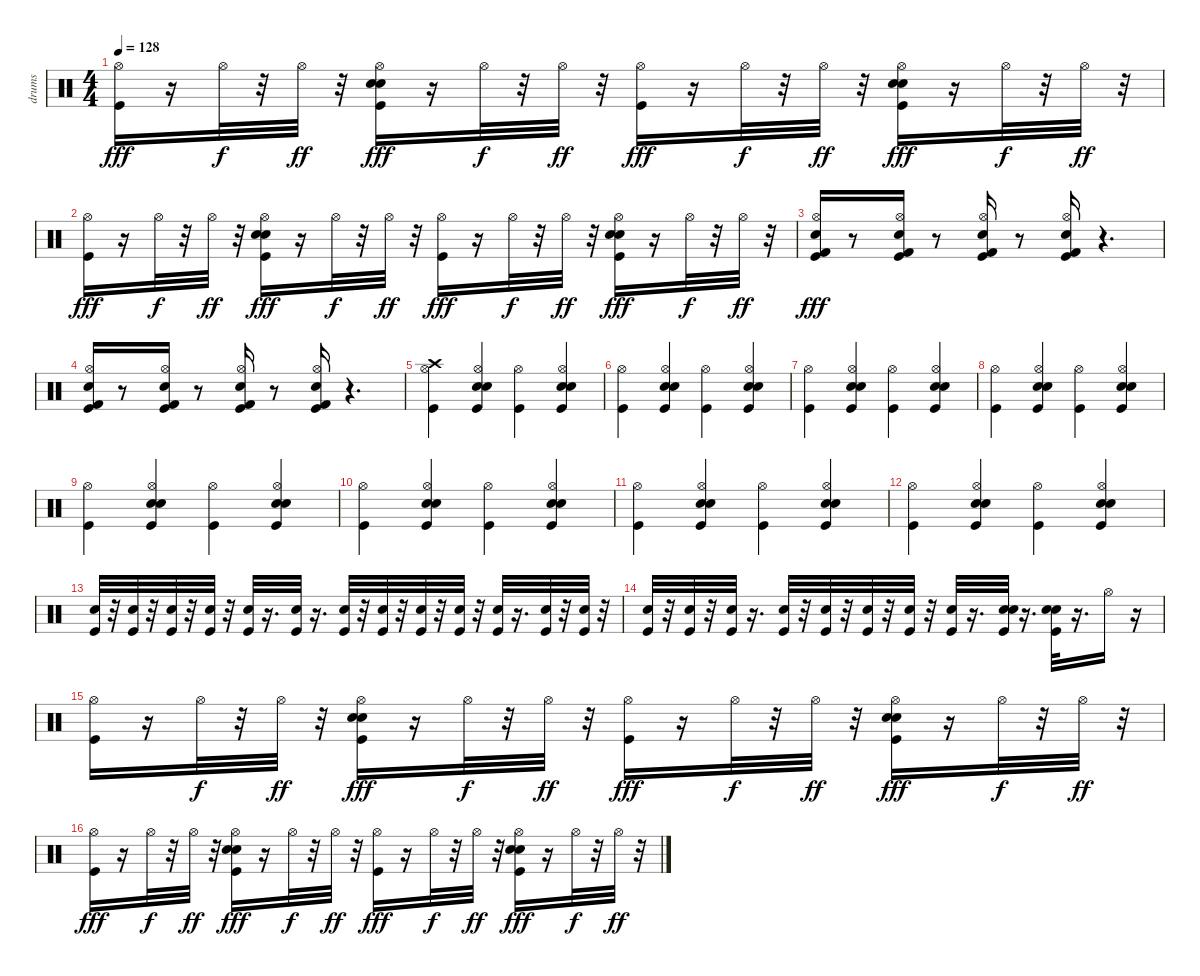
\track ("drums" "drums") {instrument percussion}
\staff {score}
\articulation defaults
\ts (4 4)
\tempo 128
\clef neutral
\ks c
("Kick (hit)" "Hi-Hat (open)").16{dy fff} r.16 "Hi-Hat (open)".32{dy f} r.32 "Hi-Hat (open)".32{dy ff} r.32 ("Snare (hit) 2" "Electric Snare (hit)" "Kick (hit)" "Hi-Hat (open)").16{dy fff} r.16 "Hi-Hat (open)".32{dy f} r.32 "Hi-Hat (open)".32{dy ff} r.32 ("Kick (hit)" "Hi-Hat (open)").16{dy fff} r.16 "Hi-Hat (open)".32{dy f} r.32 "Hi-Hat (open)".32{dy ff} r.32 ("Kick (hit)" "Snare (hit) 2" "Electric Snare (hit)" "Hi-Hat (open)").16{dy fff} r.16 "Hi-Hat (open)".32{dy f} r.32 "Hi-Hat (open)".32{dy ff} r.32 |
("Kick (hit)" "Hi-Hat (open)").16{dy fff} r.16 "Hi-Hat (open)".32{dy f} r.32 "Hi-Hat (open)".32{dy ff} r.32 ("Snare (hit) 2" "Electric Snare (hit)" "Kick (hit)" "Hi-Hat (open)").16{dy fff} r.16 "Hi-Hat (open)".32{dy f} r.32 "Hi-Hat (open)".32{dy ff} r.32 ("Kick (hit)" "Hi-Hat (open)").16{dy fff} r.16 "Hi-Hat (open)".32{dy f} r.32 "Hi-Hat (open)".32{dy ff} r.32 ("Kick (hit)" "Snare (hit) 2" "Electric Snare (hit)" "Hi-Hat (open)").16{dy fff} r.16 "Hi-Hat (open)".32{dy f} r.32 "Hi-Hat (open)".32{dy ff} r.32 |
("Hi-Hat (open)" "Snare (hit) 2" "Kick (hit) 2" "Kick (hit)").16{dy fff} r.8 ("Hi-Hat (open)" "Snare (hit) 2" "Kick (hit) 2" "Kick (hit)").16 r.8 ("Hi-Hat (open)" "Snare (hit) 2" "Kick (hit) 2" "Kick (hit)").16 r.8 ("Hi-Hat (open)" "Snare (hit) 2" "Kick (hit) 2" "Kick (hit)").16 r.4{d} |
("Hi-Hat (open)" "Snare (hit) 2" "Kick (hit) 2" "Kick (hit)").16 r.8 ("Hi-Hat (open)" "Snare (hit) 2" "Kick (hit) 2" "Kick (hit)").16 r.8 ("Hi-Hat (open)" "Snare (hit) 2" "Kick (hit) 2" "Kick (hit)").16 r.8 ("Hi-Hat (open)" "Snare (hit) 2" "Kick (hit) 2" "Kick (hit)").16 r.4{d} |
("Kick (hit)" "Crash high (hit)" "Hi-Hat (open)").4 ("Kick (hit)" "Snare (hit) 2" "Electric Snare (hit)" "Hi-Hat (open)").4 ("Kick (hit)" "Hi-Hat (open)").4 ("Kick (hit)" "Snare (hit) 2" "Electric Snare (hit)" "Hi-Hat (open)").4 |
("Hi-Hat (open)" "Kick (hit)").4 ("Kick (hit)" "Snare (hit) 2" "Electric Snare (hit)" "Hi-Hat (open)").4 ("Kick (hit)" "Hi-Hat (open)").4 ("Kick (hit)" "Snare (hit) 2" "Electric Snare (hit)" "Hi-Hat (open)").4 |
("Hi-Hat (open)" "Kick (hit)").4 ("Kick (hit)" "Snare (hit) 2" "Electric Snare (hit)" "Hi-Hat (open)").4 ("Kick (hit)" "Hi-Hat (open)").4 ("Kick (hit)" "Snare (hit) 2" "Electric Snare (hit)" "Hi-Hat (open)").4 |
("Hi-Hat (open)" "Kick (hit)").4 ("Kick (hit)" "Snare (hit) 2" "Electric Snare (hit)" "Hi-Hat (open)").4 ("Kick (hit)" "Hi-Hat (open)").4 ("Kick (hit)" "Snare (hit) 2" "Electric Snare (hit)" "Hi-Hat (open)").4 |
("Hi-Hat (open)" "Kick (hit)").4 ("Kick (hit)" "Snare (hit) 2" "Electric Snare (hit)" "Hi-Hat (open)").4 ("Kick (hit)" "Hi-Hat (open)").4 ("Kick (hit)" "Snare (hit) 2" "Electric Snare (hit)" "Hi-Hat (open)").4 |
("Hi-Hat (open)" "Kick (hit)").4 ("Kick (hit)" "Snare (hit) 2" "Electric Snare (hit)" "Hi-Hat (open)").4 ("Kick (hit)" "Hi-Hat (open)").4 ("Kick (hit)" "Snare (hit) 2" "Electric Snare (hit)" "Hi-Hat (open)").4 |
("Hi-Hat (open)" "Kick (hit)").4 ("Kick (hit)" "Snare (hit) 2" "Electric Snare (hit)" "Hi-Hat (open)").4 ("Kick (hit)" "Hi-Hat (open)").4 ("Kick (hit)" "Snare (hit) 2" "Electric Snare (hit)" "Hi-Hat (open)").4 |
("Hi-Hat (open)" "Kick (hit)").4 ("Kick (hit)" "Snare (hit) 2" "Electric Snare (hit)" "Hi-Hat (open)").4 ("Kick (hit)" "Hi-Hat (open)").4 ("Kick (hit)" "Snare (hit) 2" "Electric Snare (hit)" "Hi-Hat (open)").4 |
("Electric Snare (hit)" "Kick (hit)").32 r.32 ("Electric Snare (hit)" "Kick (hit)").32 r.32 ("Kick (hit)" "Electric Snare (hit)").32 r.32 ("Kick (hit)" "Electric Snare (hit)").32 r.32 ("Kick (hit)" "Electric Snare (hit)").32 r.16{d} ("Kick (hit)" "Electric Snare (hit)").32 r.16{d} ("Kick (hit)" "Electric Snare (hit)").32 r.32 ("Electric Snare (hit)" "Kick (hit)").32 r.32 ("Kick (hit)" "Electric Snare (hit)").32 r.32 ("Kick (hit)" "Electric Snare (hit)").32 r.32 ("Electric Snare (hit)" "Kick (hit)").32 r.16{d} ("Kick (hit)" "Electric Snare (hit)").32 r.32 ("Kick (hit)" "Electric Snare (hit)").32 r.32 |
("Kick (hit)" "Electric Snare (hit)").32 r.32 ("Electric Snare (hit)" "Kick (hit)").32 r.32 ("Kick (hit)" "Electric Snare (hit)").32 r.16{d} ("Kick (hit)" "Electric Snare (hit)").32 r.32 ("Electric Snare (hit)" "Kick (hit)").32 r.32 ("Kick (hit)" "Electric Snare (hit)").32 r.32 ("Kick (hit)" "Electric Snare (hit)").32 r.32 ("Kick (hit)" "Electric Snare (hit)").32 r.16{d} ("Kick (hit)" "Electric Snare (hit)" "Snare (hit) 2").32 r.16{d} ("Kick (hit)" "Electric Snare (hit)" "Snare (hit) 2").32 r.16{d} "Hi-Hat (open)".16 r.16 |
("Kick (hit)" "Hi-Hat (open)").16 r.16 "Hi-Hat (open)".32{dy f} r.32 "Hi-Hat (open)".32{dy ff} r.32 ("Snare (hit) 2" "Electric Snare (hit)" "Kick (hit)" "Hi-Hat (open)").16{dy fff} r.16 "Hi-Hat (open)".32{dy f} r.32 "Hi-Hat (open)".32{dy ff} r.32 ("Kick (hit)" "Hi-Hat (open)").16{dy fff} r.16 "Hi-Hat (open)".32{dy f} r.32 "Hi-Hat (open)".32{dy ff} r.32 ("Kick (hit)" "Snare (hit) 2" "Electric Snare (hit)" "Hi-Hat (open)").16{dy fff} r.16 "Hi-Hat (open)".32{dy f} r.32 "Hi-Hat (open)".32{dy ff} r.32 |
("Hi-Hat (open)" "Kick (hit)").16{dy fff} r.16 "Hi-Hat (open)".32{dy f} r.32 "Hi-Hat (open)".32{dy ff} r.32 ("Snare (hit) 2" "Electric Snare (hit)" "Kick (hit)" "Hi-Hat (open)").16{dy fff} r.16 "Hi-Hat (open)".32{dy f} r.32 "Hi-Hat (open)".32{dy ff} r.32 ("Kick (hit)" "Hi-Hat (open)").16{dy fff} r.16 "Hi-Hat (open)".32{dy f} r.32 "Hi-Hat (open)".32{dy ff} r.32 ("Kick (hit)" "Snare (hit) 2" "Electric Snare (hit)" "Hi-Hat (open)").16{dy fff} r.16 "Hi-Hat (open)".32{dy f} r.32 "Hi-Hat (open)".32{dy ff} r.32
